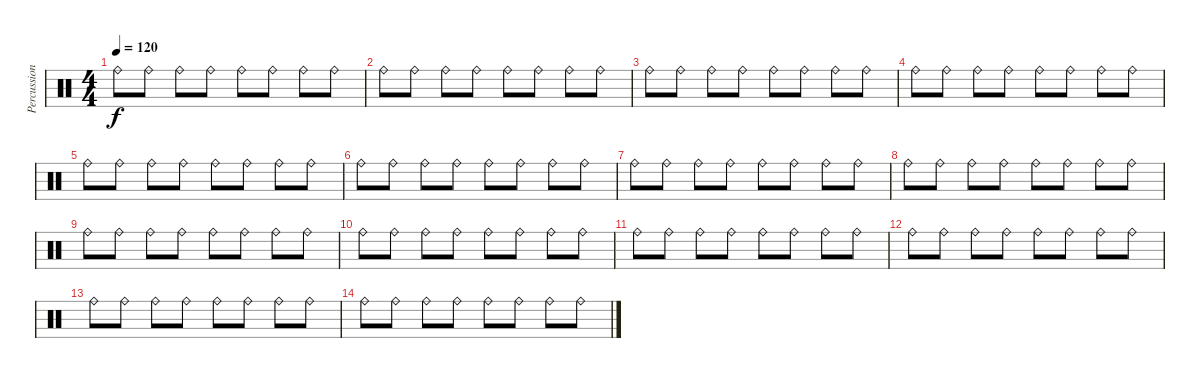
\track ("Percussion" "Percussion") {instrument percussion}
\staff {score}
\articulation defaults
\ts (4 4)
\tempo 120
\clef neutral
\ks c "Ride (bell)".8{dy f} "Ride (bell)".8 "Ride (bell)".8 "Ride (bell)".8 "Ride (bell)".8 "Ride (bell)".8 "Ride (bell)".8 "Ride (bell)".8
|
"Ride (bell)".8 "Ride (bell)".8 "Ride (bell)".8 "Ride (bell)".8 "Ride (bell)".8 "Ride (bell)".8 "Ride (bell)".8 "Ride (bell)".8 |
"Ride (bell)".8 "Ride (bell)".8 "Ride (bell)".8 "Ride (bell)".8 "Ride (bell)".8 "Ride (bell)".8 "Ride (bell)".8 "Ride (bell)".8 |
"Ride (bell)".8 "Ride (bell)".8 "Ride (bell)".8 "Ride (bell)".8 "Ride (bell)".8 "Ride (bell)".8 "Ride (bell)".8 "Ride (bell)".8 |
"Ride (bell)".8 "Ride (bell)".8 "Ride (bell)".8 "Ride (bell)".8 "Ride (bell)".8 "Ride (bell)".8 "Ride (bell)".8 "Ride (bell)".8 |
"Ride (bell)".8 "Ride (bell)".8 "Ride (bell)".8 "Ride (bell)".8 "Ride (bell)".8 "Ride (bell)".8 "Ride (bell)".8 "Ride (bell)".8 |
"Ride (bell)".8 "Ride (bell)".8 "Ride (bell)".8 "Ride (bell)".8 "Ride (bell)".8 "Ride (bell)".8 "Ride (bell)".8 "Ride (bell)".8 |
"Ride (bell)".8 "Ride (bell)".8 "Ride (bell)".8 "Ride (bell)".8 "Ride (bell)".8 "Ride (bell)".8 "Ride (bell)".8 "Ride (bell)".8 |
"Ride (bell)".8 "Ride (bell)".8 "Ride (bell)".8 "Ride (bell)".8 "Ride (bell)".8 "Ride (bell)".8 "Ride (bell)".8 "Ride (bell)".8 |
"Ride (bell)".8 "Ride (bell)".8 "Ride (bell)".8 "Ride (bell)".8 "Ride (bell)".8 "Ride (bell)".8 "Ride (bell)".8 "Ride (bell)".8 |
"Ride (bell)".8 "Ride (bell)".8 "Ride (bell)".8 "Ride (bell)".8 "Ride (bell)".8 "Ride (bell)".8 "Ride (bell)".8 "Ride (bell)".8 |
"Ride (bell)".8 "Ride (bell)".8 "Ride (bell)".8 "Ride (bell)".8 "Ride (bell)".8 "Ride (bell)".8 "Ride (bell)".8 "Ride (bell)".8 |
"Ride (bell)".8 "Ride (bell)".8 "Ride (bell)".8 "Ride (bell)".8 "Ride (bell)".8 "Ride (bell)".8 "Ride (bell)".8 "Ride (bell)".8 |
"Ride (bell)".8 "Ride (bell)".8 "Ride (bell)".8 "Ride (bell)".8 "Ride (bell)".8 "Ride (bell)".8 "Ride (bell)".8 "Ride (bell)".8
